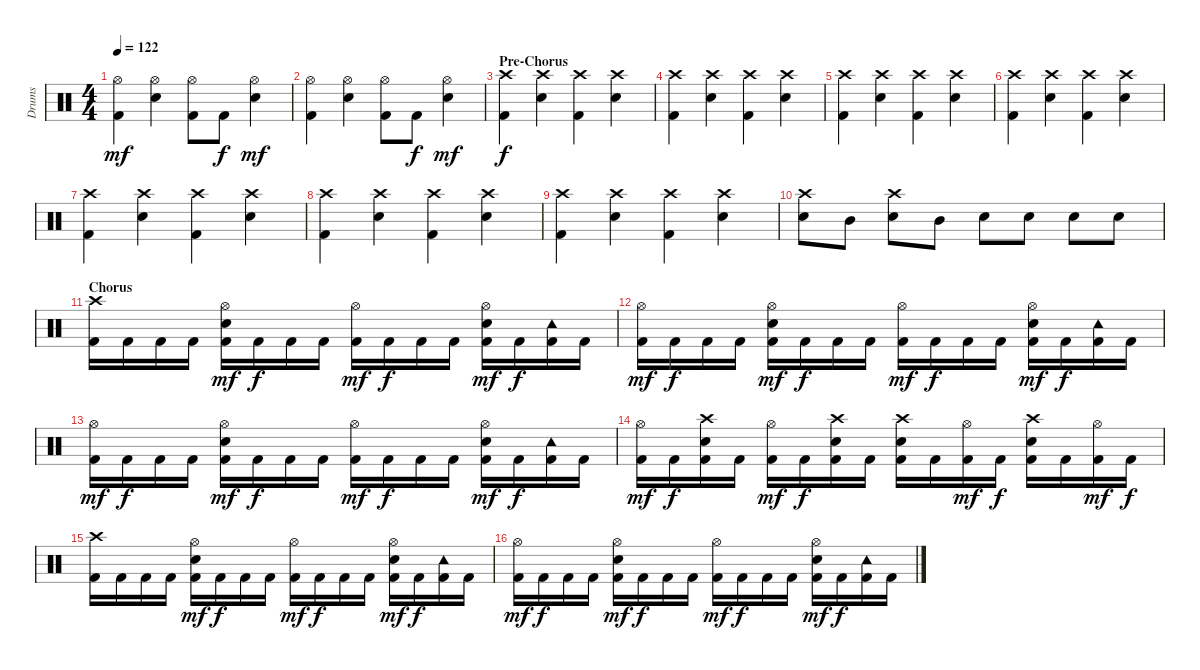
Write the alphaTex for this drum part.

\track ("Drums" "Drums") {instrument percussion}
\staff {score}
\articulation defaults
\ts (4 4)
\tempo 122
\clef neutral
\ks c
("Hi-Hat (open)" "Kick (hit) 2").4{dy mf} ("Hi-Hat (open)" "Electric Snare (hit)").4 ("Hi-Hat (open)" "Kick (hit) 2").8 "Kick (hit) 2".8{dy f} ("Hi-Hat (open)" "Electric Snare (hit)").4{dy mf} |
("Hi-Hat (open)" "Kick (hit) 2").4 ("Hi-Hat (open)" "Electric Snare (hit)").4 ("Hi-Hat (open)" "Kick (hit) 2").8 "Kick (hit) 2".8{dy f} ("Hi-Hat (open)" "Electric Snare (hit)").4{dy mf} |
\section ("" "Pre-Chorus")
("Crash high (hit)" "Kick (hit) 2").4{dy f} ("Crash high (hit)" "Electric Snare (hit)").4 ("Crash high (hit)" "Kick (hit) 2").4 ("Crash high (hit)" "Electric Snare (hit)").4 |
("Crash high (hit)" "Kick (hit) 2").4 ("Crash high (hit)" "Electric Snare (hit)").4 ("Crash high (hit)" "Kick (hit) 2").4 ("Crash high (hit)" "Electric Snare (hit)").4 |
("Crash high (hit)" "Kick (hit) 2").4 ("Crash high (hit)" "Electric Snare (hit)").4 ("Crash high (hit)" "Kick (hit) 2").4 ("Crash high (hit)" "Electric Snare (hit)").4 |
("Crash high (hit)" "Kick (hit) 2").4 ("Crash high (hit)" "Electric Snare (hit)").4 ("Crash high (hit)" "Kick (hit) 2").4 ("Crash high (hit)" "Electric Snare (hit)").4 |
("Crash high (hit)" "Kick (hit) 2").4 ("Crash high (hit)" "Electric Snare (hit)").4 ("Crash high (hit)" "Kick (hit) 2").4 ("Crash high (hit)" "Electric Snare (hit)").4 |
("Crash high (hit)" "Kick (hit) 2").4 ("Crash high (hit)" "Electric Snare (hit)").4 ("Crash high (hit)" "Kick (hit) 2").4 ("Crash high (hit)" "Electric Snare (hit)").4 |
("Crash high (hit)" "Kick (hit) 2").4 ("Crash high (hit)" "Electric Snare (hit)").4 ("Crash high (hit)" "Kick (hit) 2").4 ("Crash high (hit)" "Electric Snare (hit)").4 |
("Crash high (hit)" "Electric Snare (hit)").8 "Mid Tom (hit)".8 ("Crash high (hit)" "Electric Snare (hit)").8 "Mid Tom (hit)".8 "Electric Snare (hit)".8 "Electric Snare (hit)".8 "Electric Snare (hit)".8 "Electric Snare (hit)".8 |
\section ("" "Chorus")
("Crash high (hit)" "Kick (hit) 2").16 "Kick (hit) 2".16 "Kick (hit) 2".16 "Kick (hit) 2".16 ("Hi-Hat (open)" "Electric Snare (hit)" "Kick (hit) 2").16{dy mf} "Kick (hit) 2".16{dy f} "Kick (hit) 2".16 "Kick (hit) 2".16 ("Hi-Hat (open)" "Kick (hit) 2").16{dy mf} "Kick (hit) 2".16{dy f} "Kick (hit) 2".16 "Kick (hit) 2".16 ("Hi-Hat (open)" "Electric Snare (hit)" "Kick (hit) 2").16{dy mf} "Kick (hit) 2".16{dy f} ("Tambourine (hit)" "Kick (hit) 2").16 "Kick (hit) 2".16 |
("Hi-Hat (open)" "Kick (hit) 2").16{dy mf} "Kick (hit) 2".16{dy f} "Kick (hit) 2".16 "Kick (hit) 2".16 ("Hi-Hat (open)" "Electric Snare (hit)" "Kick (hit) 2").16{dy mf} "Kick (hit) 2".16{dy f} "Kick (hit) 2".16 "Kick (hit) 2".16 ("Hi-Hat (open)" "Kick (hit) 2").16{dy mf} "Kick (hit) 2".16{dy f} "Kick (hit) 2".16 "Kick (hit) 2".16 ("Hi-Hat (open)" "Electric Snare (hit)" "Kick (hit) 2").16{dy mf} "Kick (hit) 2".16{dy f} ("Tambourine (hit)" "Kick (hit) 2").16 "Kick (hit) 2".16 |
("Hi-Hat (open)" "Kick (hit) 2").16{dy mf} "Kick (hit) 2".16{dy f} "Kick (hit) 2".16 "Kick (hit) 2".16 ("Hi-Hat (open)" "Electric Snare (hit)" "Kick (hit) 2").16{dy mf} "Kick (hit) 2".16{dy f} "Kick (hit) 2".16 "Kick (hit) 2".16 ("Hi-Hat (open)" "Kick (hit) 2").16{dy mf} "Kick (hit) 2".16{dy f} "Kick (hit) 2".16 "Kick (hit) 2".16 ("Hi-Hat (open)" "Electric Snare (hit)" "Kick (hit) 2").16{dy mf} "Kick (hit) 2".16{dy f} ("Tambourine (hit)" "Kick (hit) 2").16 "Kick (hit) 2".16 |
("Hi-Hat (open)" "Kick (hit) 2").16{dy mf} "Kick (hit) 2".16{dy f} ("Crash high (hit)" "Electric Snare (hit)" "Kick (hit) 2").16 "Kick (hit) 2".16 ("Hi-Hat (open)" "Kick (hit) 2").16{dy mf} "Kick (hit) 2".16{dy f} ("Crash high (hit)" "Electric Snare (hit)" "Kick (hit) 2").16 "Kick (hit) 2".16 ("Crash high (hit)" "Electric Snare (hit)" "Kick (hit) 2").16 "Kick (hit) 2".16 ("Hi-Hat (open)" "Kick (hit) 2").16{dy mf} "Kick (hit) 2".16{dy f} ("Crash high (hit)" "Electric Snare (hit)" "Kick (hit) 2").16 "Kick (hit) 2".16 ("Hi-Hat (open)" "Kick (hit) 2").16{dy mf} "Kick (hit) 2".16{dy f} |
("Crash high (hit)" "Kick (hit) 2").16 "Kick (hit) 2".16 "Kick (hit) 2".16 "Kick (hit) 2".16 ("Hi-Hat (open)" "Electric Snare (hit)" "Kick (hit) 2").16{dy mf} "Kick (hit) 2".16{dy f} "Kick (hit) 2".16 "Kick (hit) 2".16 ("Hi-Hat (open)" "Kick (hit) 2").16{dy mf} "Kick (hit) 2".16{dy f} "Kick (hit) 2".16 "Kick (hit) 2".16 ("Hi-Hat (open)" "Electric Snare (hit)" "Kick (hit) 2").16{dy mf} "Kick (hit) 2".16{dy f} ("Tambourine (hit)" "Kick (hit) 2").16 "Kick (hit) 2".16 |
("Hi-Hat (open)" "Kick (hit) 2").16{dy mf} "Kick (hit) 2".16{dy f} "Kick (hit) 2".16 "Kick (hit) 2".16 ("Hi-Hat (open)" "Electric Snare (hit)" "Kick (hit) 2").16{dy mf} "Kick (hit) 2".16{dy f} "Kick (hit) 2".16 "Kick (hit) 2".16 ("Hi-Hat (open)" "Kick (hit) 2").16{dy mf} "Kick (hit) 2".16{dy f} "Kick (hit) 2".16 "Kick (hit) 2".16 ("Hi-Hat (open)" "Electric Snare (hit)" "Kick (hit) 2").16{dy mf} "Kick (hit) 2".16{dy f} ("Tambourine (hit)" "Kick (hit) 2").16 "Kick (hit) 2".16
